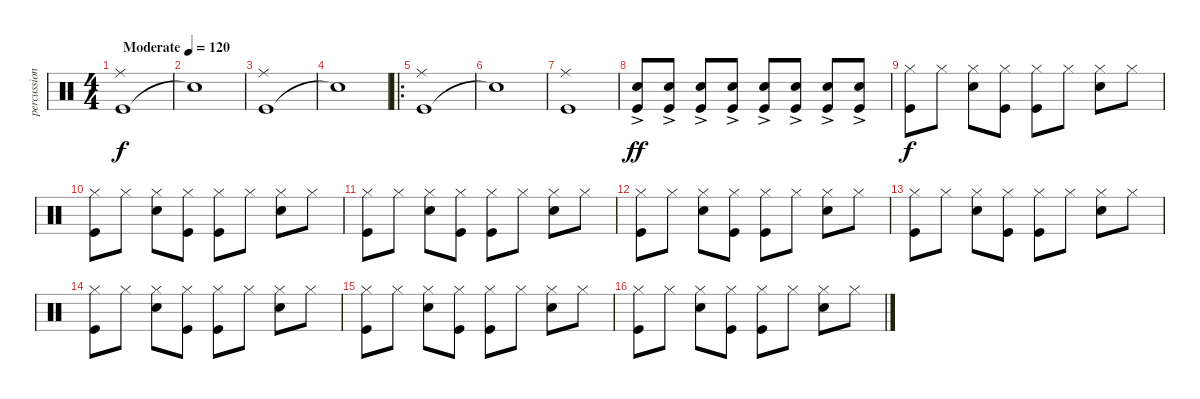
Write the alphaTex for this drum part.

\track ("percussion" "percussion") {instrument percussion}
\staff {score}
\articulation defaults
\ts (4 4)
\tempo (120 "Moderate")
\clef neutral
\ks c
("Kick (hit)" "Ride (middle)").1{dy f} |
"Snare (hit)"{t}.1 |
("Kick (hit)" "Ride (middle)").1 |
"Snare (hit)"{t}.1 |
\ro
("Kick (hit)" "Ride (middle)").1 |
"Snare (hit)"{t}.1 |
("Kick (hit)" "Ride (middle)").1 |
("Kick (hit)" "Snare (hit) 2"{ac}).8{dy ff} ("Kick (hit)" "Snare (hit) 2"{ac}).8 ("Kick (hit)" "Snare (hit) 2"{ac}).8 ("Kick (hit)" "Snare (hit) 2"{ac}).8 ("Kick (hit)" "Snare (hit) 2"{ac}).8 ("Kick (hit)" "Snare (hit) 2"{ac}).8 ("Kick (hit)" "Snare (hit) 2"{ac}).8 ("Kick (hit)" "Snare (hit) 2"{ac}).8 |
("Hi-Hat (closed)" "Kick (hit)").8{dy f} "Hi-Hat (closed)".8 ("Hi-Hat (closed)" "Electric Snare (hit)").8 ("Hi-Hat (closed)" "Kick (hit)").8 ("Hi-Hat (closed)" "Kick (hit)").8 "Hi-Hat (closed)".8 ("Hi-Hat (closed)" "Electric Snare (hit)").8 "Hi-Hat (closed)".8 |
("Hi-Hat (closed)" "Kick (hit)").8 "Hi-Hat (closed)".8 ("Hi-Hat (closed)" "Electric Snare (hit)").8 ("Hi-Hat (closed)" "Kick (hit)").8 ("Hi-Hat (closed)" "Kick (hit)").8 "Hi-Hat (closed)".8 ("Hi-Hat (closed)" "Electric Snare (hit)").8 "Hi-Hat (closed)".8 |
("Hi-Hat (closed)" "Kick (hit)").8 "Hi-Hat (closed)".8 ("Hi-Hat (closed)" "Electric Snare (hit)").8 ("Hi-Hat (closed)" "Kick (hit)").8 ("Hi-Hat (closed)" "Kick (hit)").8 "Hi-Hat (closed)".8 ("Hi-Hat (closed)" "Electric Snare (hit)").8 "Hi-Hat (closed)".8 |
("Hi-Hat (closed)" "Kick (hit)").8 "Hi-Hat (closed)".8 ("Hi-Hat (closed)" "Electric Snare (hit)").8 ("Hi-Hat (closed)" "Kick (hit)").8 ("Hi-Hat (closed)" "Kick (hit)").8 "Hi-Hat (closed)".8 ("Hi-Hat (closed)" "Electric Snare (hit)").8 "Hi-Hat (closed)".8 |
("Hi-Hat (closed)" "Kick (hit)").8 "Hi-Hat (closed)".8 ("Hi-Hat (closed)" "Electric Snare (hit)").8 ("Hi-Hat (closed)" "Kick (hit)").8 ("Hi-Hat (closed)" "Kick (hit)").8 "Hi-Hat (closed)".8 ("Hi-Hat (closed)" "Electric Snare (hit)").8 "Hi-Hat (closed)".8 |
("Hi-Hat (closed)" "Kick (hit)").8 "Hi-Hat (closed)".8 ("Hi-Hat (closed)" "Electric Snare (hit)").8 ("Hi-Hat (closed)" "Kick (hit)").8 ("Hi-Hat (closed)" "Kick (hit)").8 "Hi-Hat (closed)".8 ("Hi-Hat (closed)" "Electric Snare (hit)").8 "Hi-Hat (closed)".8 |
("Hi-Hat (closed)" "Kick (hit)").8 "Hi-Hat (closed)".8 ("Hi-Hat (closed)" "Electric Snare (hit)").8 ("Hi-Hat (closed)" "Kick (hit)").8 ("Hi-Hat (closed)" "Kick (hit)").8 "Hi-Hat (closed)".8 ("Hi-Hat (closed)" "Electric Snare (hit)").8 "Hi-Hat (closed)".8 |
("Hi-Hat (closed)" "Kick (hit)").8 "Hi-Hat (closed)".8 ("Hi-Hat (closed)" "Electric Snare (hit)").8 ("Hi-Hat (closed)" "Kick (hit)").8 ("Hi-Hat (closed)" "Kick (hit)").8 "Hi-Hat (closed)".8 ("Hi-Hat (closed)" "Electric Snare (hit)").8 "Hi-Hat (closed)".8
